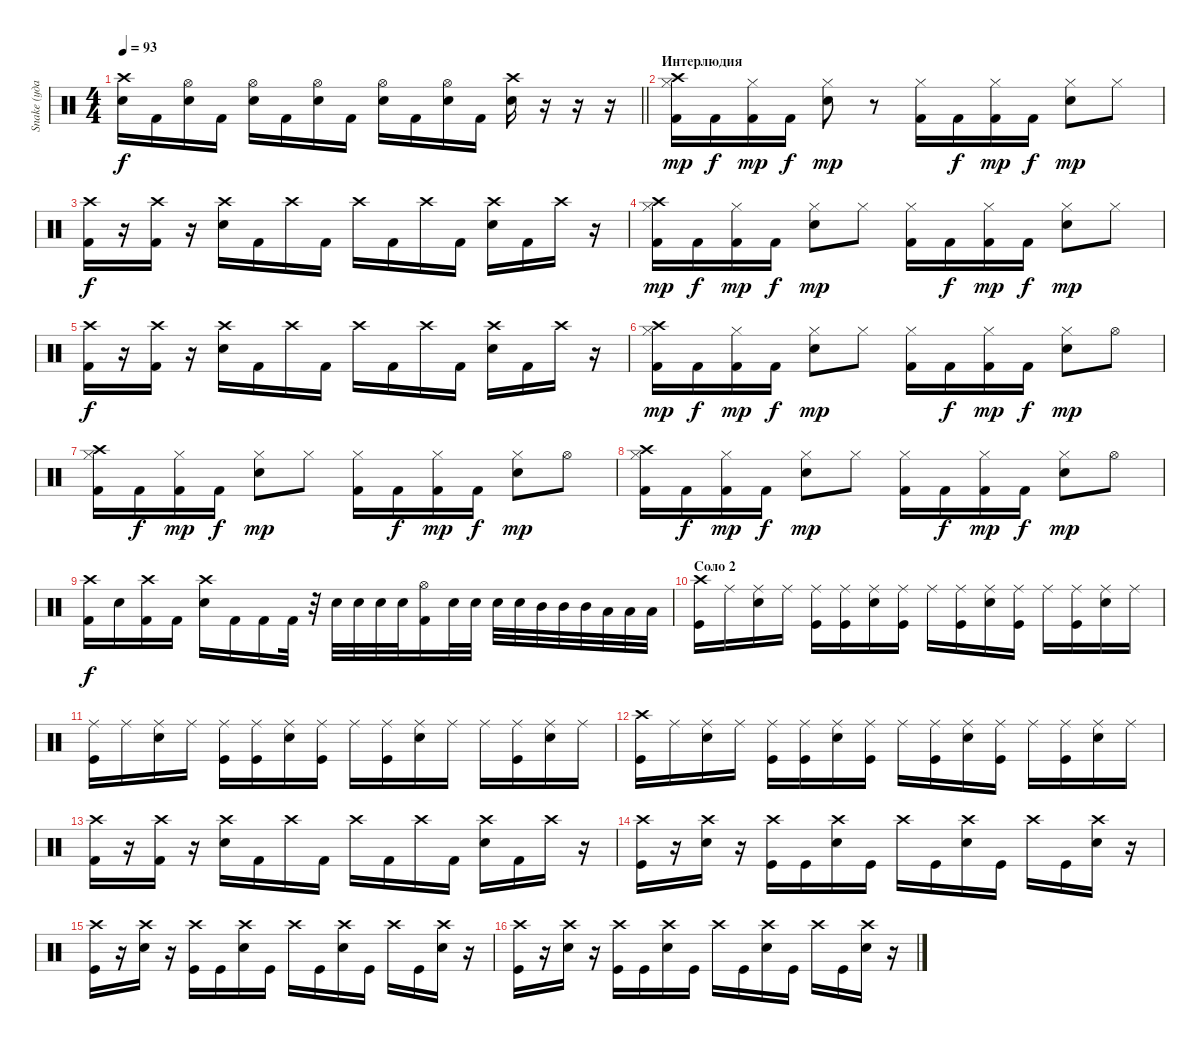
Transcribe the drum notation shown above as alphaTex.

\track ("Snake (ударные)" "Snake (уда") {instrument percussion}
\staff {score}
\articulation defaults
\ts (4 4)
\tempo 93
\clef neutral
\barLineRight lightlight
\ks c
("Snare (hit) 2" "Crash high (hit)").16{dy f} "Kick (hit) 2".16 ("Snare (hit) 2" "Hi-Hat (open)").16 "Kick (hit) 2".16 ("Snare (hit) 2" "Hi-Hat (open)").16 "Kick (hit) 2".16 ("Snare (hit) 2" "Hi-Hat (open)").16 "Kick (hit) 2".16 ("Snare (hit) 2" "Hi-Hat (open)").16 "Kick (hit) 2".16 ("Snare (hit) 2" "Hi-Hat (open)").16 "Kick (hit) 2".16 ("Snare (hit) 2" "Crash high (hit)").16 r.16 r.16 r.16 |
\section ("" "Интерлюдия")
("Hi-Hat (closed)" "Kick (hit) 2" "Crash high (hit)").16{dy mp} "Kick (hit) 2".16{dy f} ("Hi-Hat (closed)" "Kick (hit) 2").16{dy mp} "Kick (hit) 2".16{dy f} ("Hi-Hat (closed)" "Snare (hit) 2").8{dy mp} r.8 ("Hi-Hat (closed)" "Kick (hit) 2").16 "Kick (hit) 2".16{dy f} ("Hi-Hat (closed)" "Kick (hit) 2").16{dy mp} "Kick (hit) 2".16{dy f} ("Hi-Hat (closed)" "Snare (hit) 2").8{dy mp} "Hi-Hat (closed)".8 |
("Crash high (hit)" "Kick (hit) 2").16{dy f} r.16 ("Crash high (hit)" "Kick (hit) 2").16 r.16 ("Crash high (hit)" "Snare (hit) 2").16 "Kick (hit) 2".16 "Crash high (hit)".16 "Kick (hit) 2".16 "Crash high (hit)".16 "Kick (hit) 2".16 "Crash high (hit)".16 "Kick (hit) 2".16 ("Crash high (hit)" "Snare (hit) 2").16 "Kick (hit) 2".16 "Crash high (hit)".16 r.16 |
("Hi-Hat (closed)" "Kick (hit) 2" "Crash high (hit)").16{dy mp} "Kick (hit) 2".16{dy f} ("Hi-Hat (closed)" "Kick (hit) 2").16{dy mp} "Kick (hit) 2".16{dy f} ("Hi-Hat (closed)" "Snare (hit) 2").8{dy mp} "Hi-Hat (closed)".8 ("Hi-Hat (closed)" "Kick (hit) 2").16 "Kick (hit) 2".16{dy f} ("Hi-Hat (closed)" "Kick (hit) 2").16{dy mp} "Kick (hit) 2".16{dy f} ("Hi-Hat (closed)" "Snare (hit) 2").8{dy mp} "Hi-Hat (closed)".8 |
("Crash high (hit)" "Kick (hit) 2").16{dy f} r.16 ("Crash high (hit)" "Kick (hit) 2").16 r.16 ("Crash high (hit)" "Snare (hit) 2").16 "Kick (hit) 2".16 "Crash high (hit)".16 "Kick (hit) 2".16 "Crash high (hit)".16 "Kick (hit) 2".16 "Crash high (hit)".16 "Kick (hit) 2".16 ("Crash high (hit)" "Snare (hit) 2").16 "Kick (hit) 2".16 "Crash high (hit)".16 r.16 |
("Hi-Hat (closed)" "Kick (hit) 2" "Crash high (hit)").16{dy mp} "Kick (hit) 2".16{dy f} ("Hi-Hat (closed)" "Kick (hit) 2").16{dy mp} "Kick (hit) 2".16{dy f} ("Hi-Hat (closed)" "Snare (hit) 2").8{dy mp} "Hi-Hat (closed)".8 ("Hi-Hat (closed)" "Kick (hit) 2").16 "Kick (hit) 2".16{dy f} ("Hi-Hat (closed)" "Kick (hit) 2").16{dy mp} "Kick (hit) 2".16{dy f} ("Hi-Hat (closed)" "Snare (hit) 2").8{dy mp} "Hi-Hat (open)".8 |
("Hi-Hat (closed)" "Kick (hit) 2" "Crash high (hit)").16 "Kick (hit) 2".16{dy f} ("Hi-Hat (closed)" "Kick (hit) 2").16{dy mp} "Kick (hit) 2".16{dy f} ("Hi-Hat (closed)" "Snare (hit) 2").8{dy mp} "Hi-Hat (closed)".8 ("Hi-Hat (closed)" "Kick (hit) 2").16 "Kick (hit) 2".16{dy f} ("Hi-Hat (closed)" "Kick (hit) 2").16{dy mp} "Kick (hit) 2".16{dy f} ("Hi-Hat (closed)" "Snare (hit) 2").8{dy mp} "Hi-Hat (open)".8 |
("Hi-Hat (closed)" "Kick (hit) 2" "Crash high (hit)").16 "Kick (hit) 2".16{dy f} ("Hi-Hat (closed)" "Kick (hit) 2").16{dy mp} "Kick (hit) 2".16{dy f} ("Hi-Hat (closed)" "Snare (hit) 2").8{dy mp} "Hi-Hat (closed)".8 ("Hi-Hat (closed)" "Kick (hit) 2").16 "Kick (hit) 2".16{dy f} ("Hi-Hat (closed)" "Kick (hit) 2").16{dy mp} "Kick (hit) 2".16{dy f} ("Hi-Hat (closed)" "Snare (hit) 2").8{dy mp} "Hi-Hat (open)".8 |
("Crash high (hit)" "Kick (hit) 2").16{dy f} "Snare (hit) 2".16 ("Crash high (hit)" "Kick (hit) 2").16 "Kick (hit) 2".16 ("Crash high (hit)" "Snare (hit) 2").16 "Kick (hit) 2".16 "Kick (hit) 2".16 "Kick (hit) 2".32 r.32 "Snare (hit) 2".32 "Snare (hit) 2".32 "Snare (hit) 2".32 "Snare (hit) 2".32 ("Hi-Hat (open)" "Kick (hit) 2").16 "Snare (hit) 2".32 "Snare (hit) 2".32 "Snare (hit) 2".32 "Snare (hit) 2".32 "Mid Tom (hit)".32 "Mid Tom (hit)".32 "Mid Tom (hit)".32 "Low Tom (hit)".32 "Low Tom (hit)".32 "Low Tom (hit)".32 |
\section ("" "Соло 2")
("Crash high (hit)" "Kick (hit)").16 "Ride (middle)".16 ("Ride (middle)" "Snare (hit) 2").16 "Ride (middle)".16 ("Ride (middle)" "Kick (hit)").16 ("Ride (middle)" "Kick (hit)").16 ("Ride (middle)" "Snare (hit) 2").16 ("Ride (middle)" "Kick (hit)").16 "Ride (middle)".16 ("Ride (middle)" "Kick (hit)").16 ("Ride (middle)" "Snare (hit) 2").16 ("Ride (middle)" "Kick (hit)").16 "Ride (middle)".16 ("Ride (middle)" "Kick (hit)").16 ("Ride (middle)" "Snare (hit) 2").16 "Ride (middle)".16 |
("Ride (middle)" "Kick (hit)").16 "Ride (middle)".16 ("Ride (middle)" "Snare (hit) 2").16 "Ride (middle)".16 ("Ride (middle)" "Kick (hit)").16 ("Ride (middle)" "Kick (hit)").16 ("Ride (middle)" "Snare (hit) 2").16 ("Ride (middle)" "Kick (hit)").16 "Ride (middle)".16 ("Ride (middle)" "Kick (hit)").16 ("Ride (middle)" "Snare (hit) 2").16 "Ride (middle)".16 "Ride (middle)".16 ("Ride (middle)" "Kick (hit)").16 ("Ride (middle)" "Snare (hit) 2").16 "Ride (middle)".16 |
("Crash high (hit)" "Kick (hit)").16 "Ride (middle)".16 ("Ride (middle)" "Snare (hit) 2").16 "Ride (middle)".16 ("Ride (middle)" "Kick (hit)").16 ("Ride (middle)" "Kick (hit)").16 ("Ride (middle)" "Snare (hit) 2").16 ("Ride (middle)" "Kick (hit)").16 "Ride (middle)".16 ("Ride (middle)" "Kick (hit)").16 ("Ride (middle)" "Snare (hit) 2").16 ("Ride (middle)" "Kick (hit)").16 "Ride (middle)".16 ("Ride (middle)" "Kick (hit)").16 ("Ride (middle)" "Snare (hit) 2").16 "Ride (middle)".16 |
("Crash high (hit)" "Kick (hit) 2").16 r.16 ("Crash high (hit)" "Kick (hit) 2").16 r.16 ("Crash high (hit)" "Snare (hit) 2").16 "Kick (hit) 2".16 "Crash high (hit)".16 "Kick (hit) 2".16 "Crash high (hit)".16 "Kick (hit) 2".16 "Crash high (hit)".16 "Kick (hit) 2".16 ("Crash high (hit)" "Snare (hit) 2").16 "Kick (hit) 2".16 "Crash high (hit)".16 r.16 |
("Crash high (hit)" "Kick (hit)").16 r.16 ("Crash high (hit)" "Snare (hit) 2").16 r.16 ("Crash high (hit)" "Kick (hit)").16 "Kick (hit)".16 ("Crash high (hit)" "Snare (hit) 2").16 "Kick (hit)".16 "Crash high (hit)".16 "Kick (hit)".16 ("Crash high (hit)" "Snare (hit) 2").16 "Kick (hit)".16 "Crash high (hit)".16 "Kick (hit)".16 ("Crash high (hit)" "Snare (hit) 2").16 r.16 |
("Crash high (hit)" "Kick (hit)").16 r.16 ("Crash high (hit)" "Snare (hit) 2").16 r.16 ("Crash high (hit)" "Kick (hit)").16 "Kick (hit)".16 ("Crash high (hit)" "Snare (hit) 2").16 "Kick (hit)".16 "Crash high (hit)".16 "Kick (hit)".16 ("Crash high (hit)" "Snare (hit) 2").16 "Kick (hit)".16 "Crash high (hit)".16 "Kick (hit)".16 ("Crash high (hit)" "Snare (hit) 2").16 r.16 |
("Crash high (hit)" "Kick (hit)").16 r.16 ("Crash high (hit)" "Snare (hit) 2").16 r.16 ("Crash high (hit)" "Kick (hit)").16 "Kick (hit)".16 ("Crash high (hit)" "Snare (hit) 2").16 "Kick (hit)".16 "Crash high (hit)".16 "Kick (hit)".16 ("Crash high (hit)" "Snare (hit) 2").16 "Kick (hit)".16 "Crash high (hit)".16 "Kick (hit)".16 ("Crash high (hit)" "Snare (hit) 2").16 r.16
